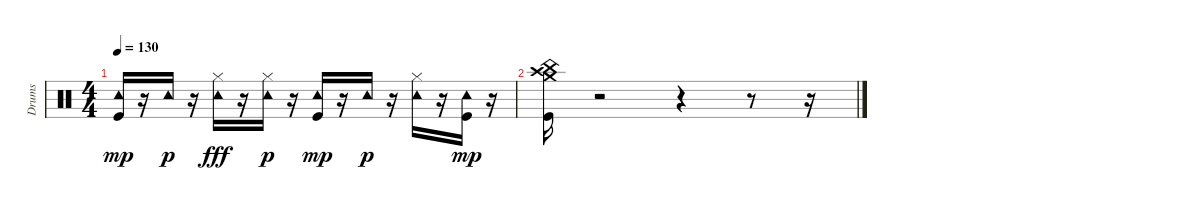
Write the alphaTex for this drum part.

\track ("Drums" "Drums") {instrument percussion}
\staff {score}
\articulation defaults
\ts (4 4)
\tempo 130
\clef neutral
\ks c
("Tambourine (hit)" "Kick (hit)").16{dy mp} r.16 "Tambourine (hit)".16{dy p} r.16 ("Tambourine (hit)" "Hi-Hat (closed)").16{dy fff} r.16 ("Hi-Hat (closed)" "Tambourine (hit)").16{dy p} r.16 ("Tambourine (hit)" "Kick (hit)").16{dy mp} r.16 "Tambourine (hit)".16{dy p} r.16 ("Hi-Hat (closed)" "Tambourine (hit)").16 r.16 ("Tambourine (hit)" "Kick (hit)").16{dy mp} r.16 |
("Crash high (hit)" "China (hit)" "Crash medium (hit)" "Kick (hit)").16 r.2 r.4 r.8 r.16
